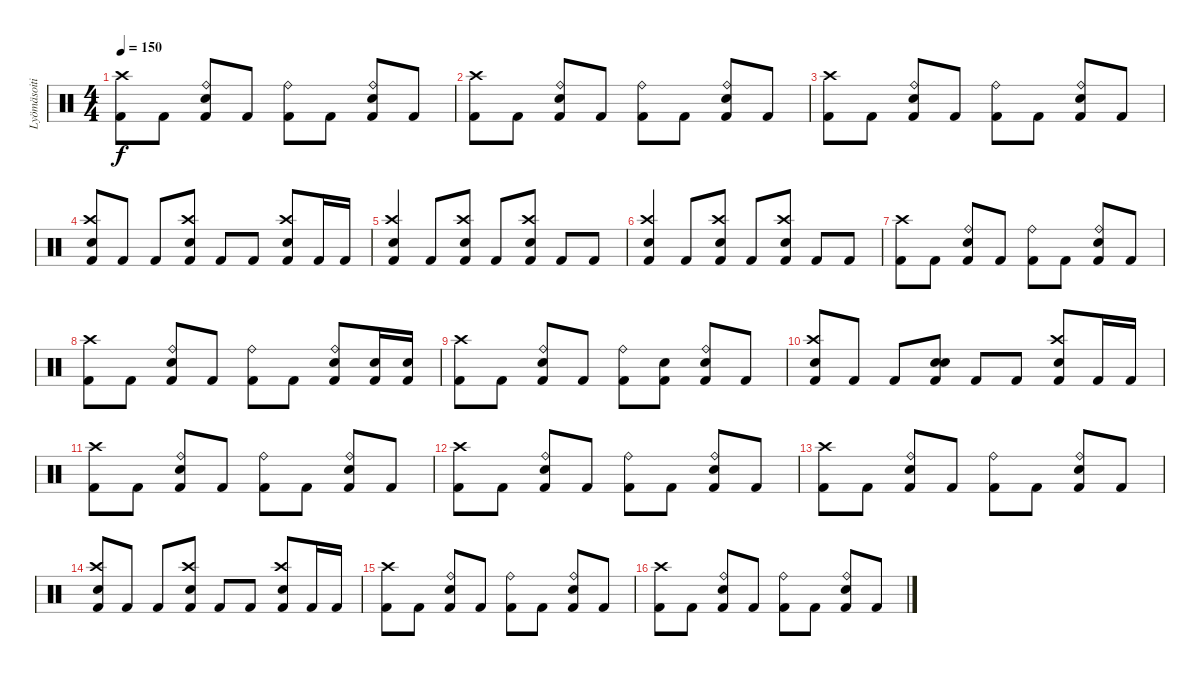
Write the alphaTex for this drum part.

\track ("Lyömäsoitin" "Lyömäsoiti") {instrument percussion}
\staff {score}
\articulation defaults
\ts (4 4)
\tempo 150
\clef neutral
\ks c
("Kick (hit) 2" "Crash high (hit)").8{dy f} "Kick (hit) 2".8 ("Kick (hit) 2" "Ride (bell)" "Electric Snare (hit)").8 "Kick (hit) 2".8 ("Kick (hit) 2" "Ride (bell)").8 "Kick (hit) 2".8 ("Kick (hit) 2" "Ride (bell)" "Electric Snare (hit)").8 "Kick (hit) 2".8 |
("Kick (hit) 2" "Crash high (hit)").8 "Kick (hit) 2".8 ("Kick (hit) 2" "Ride (bell)" "Electric Snare (hit)").8 "Kick (hit) 2".8 ("Kick (hit) 2" "Ride (bell)").8 "Kick (hit) 2".8 ("Kick (hit) 2" "Ride (bell)" "Electric Snare (hit)").8 "Kick (hit) 2".8 |
("Kick (hit) 2" "Crash high (hit)").8 "Kick (hit) 2".8 ("Kick (hit) 2" "Ride (bell)" "Electric Snare (hit)").8 "Kick (hit) 2".8 ("Kick (hit) 2" "Ride (bell)").8 "Kick (hit) 2".8 ("Kick (hit) 2" "Ride (bell)" "Electric Snare (hit)").8 "Kick (hit) 2".8 |
("Kick (hit) 2" "Crash high (hit)" "Electric Snare (hit)").8 "Kick (hit) 2".8 "Kick (hit) 2".8 ("Kick (hit) 2" "Crash high (hit)" "Electric Snare (hit)").8 "Kick (hit) 2".8 "Kick (hit) 2".8 ("Kick (hit) 2" "Crash high (hit)" "Electric Snare (hit)").8 "Kick (hit) 2".16 "Kick (hit) 2".16 |
("Kick (hit) 2" "Crash high (hit)" "Electric Snare (hit)").4 "Kick (hit) 2".8 ("Kick (hit) 2" "Crash high (hit)" "Electric Snare (hit)").8 "Kick (hit) 2".8 ("Kick (hit) 2" "Crash high (hit)" "Electric Snare (hit)").8 "Kick (hit) 2".8 "Kick (hit) 2".8 |
("Kick (hit) 2" "Crash high (hit)" "Electric Snare (hit)").4 "Kick (hit) 2".8 ("Kick (hit) 2" "Crash high (hit)" "Electric Snare (hit)").8 "Kick (hit) 2".8 ("Kick (hit) 2" "Crash high (hit)" "Electric Snare (hit)").8 "Kick (hit) 2".8 "Kick (hit) 2".8 |
("Kick (hit) 2" "Crash high (hit)").8 "Kick (hit) 2".8 ("Kick (hit) 2" "Ride (bell)" "Electric Snare (hit)").8 "Kick (hit) 2".8 ("Kick (hit) 2" "Ride (bell)").8 "Kick (hit) 2".8 ("Kick (hit) 2" "Ride (bell)" "Electric Snare (hit)").8 "Kick (hit) 2".8 |
("Kick (hit) 2" "Crash high (hit)").8 "Kick (hit) 2".8 ("Kick (hit) 2" "Ride (bell)" "Electric Snare (hit)").8 "Kick (hit) 2".8 ("Kick (hit) 2" "Ride (bell)").8 "Kick (hit) 2".8 ("Kick (hit) 2" "Ride (bell)" "Electric Snare (hit)").8 ("Kick (hit) 2" "Electric Snare (hit)").16 ("Kick (hit) 2" "Electric Snare (hit)").16 |
("Kick (hit) 2" "Crash high (hit)").8 "Kick (hit) 2".8 ("Kick (hit) 2" "Ride (bell)" "Electric Snare (hit)").8 "Kick (hit) 2".8 ("Kick (hit) 2" "Ride (bell)").8 ("Kick (hit) 2" "Snare (hit)").8 ("Kick (hit) 2" "Ride (bell)" "Electric Snare (hit)").8 "Kick (hit) 2".8 |
("Kick (hit) 2" "Crash high (hit)" "Electric Snare (hit)").8 "Kick (hit) 2".8 "Kick (hit) 2".8 ("Kick (hit) 2" "Electric Snare (hit)" "Electric Snare (hit)").8 "Kick (hit) 2".8 "Kick (hit) 2".8 ("Kick (hit) 2" "Crash high (hit)" "Electric Snare (hit)").8 "Kick (hit) 2".16 "Kick (hit) 2".16 |
("Kick (hit) 2" "Crash high (hit)").8 "Kick (hit) 2".8 ("Kick (hit) 2" "Ride (bell)" "Electric Snare (hit)").8 "Kick (hit) 2".8 ("Kick (hit) 2" "Ride (bell)").8 "Kick (hit) 2".8 ("Kick (hit) 2" "Ride (bell)" "Electric Snare (hit)").8 "Kick (hit) 2".8 |
("Kick (hit) 2" "Crash high (hit)").8 "Kick (hit) 2".8 ("Kick (hit) 2" "Ride (bell)" "Electric Snare (hit)").8 "Kick (hit) 2".8 ("Kick (hit) 2" "Ride (bell)").8 "Kick (hit) 2".8 ("Kick (hit) 2" "Ride (bell)" "Electric Snare (hit)").8 "Kick (hit) 2".8 |
("Kick (hit) 2" "Crash high (hit)").8 "Kick (hit) 2".8 ("Kick (hit) 2" "Ride (bell)" "Electric Snare (hit)").8 "Kick (hit) 2".8 ("Kick (hit) 2" "Ride (bell)").8 "Kick (hit) 2".8 ("Kick (hit) 2" "Ride (bell)" "Electric Snare (hit)").8 "Kick (hit) 2".8 |
("Kick (hit) 2" "Crash high (hit)" "Electric Snare (hit)").8 "Kick (hit) 2".8 "Kick (hit) 2".8 ("Kick (hit) 2" "Crash high (hit)" "Electric Snare (hit)").8 "Kick (hit) 2".8 "Kick (hit) 2".8 ("Kick (hit) 2" "Crash high (hit)" "Electric Snare (hit)").8 "Kick (hit) 2".16 "Kick (hit) 2".16 |
("Kick (hit) 2" "Crash high (hit)").8 "Kick (hit) 2".8 ("Kick (hit) 2" "Ride (bell)" "Electric Snare (hit)").8 "Kick (hit) 2".8 ("Kick (hit) 2" "Ride (bell)").8 "Kick (hit) 2".8 ("Kick (hit) 2" "Ride (bell)" "Electric Snare (hit)").8 "Kick (hit) 2".8 |
("Kick (hit) 2" "Crash high (hit)").8 "Kick (hit) 2".8 ("Kick (hit) 2" "Ride (bell)" "Electric Snare (hit)").8 "Kick (hit) 2".8 ("Kick (hit) 2" "Ride (bell)").8 "Kick (hit) 2".8 ("Kick (hit) 2" "Ride (bell)" "Electric Snare (hit)").8 "Kick (hit) 2".8
